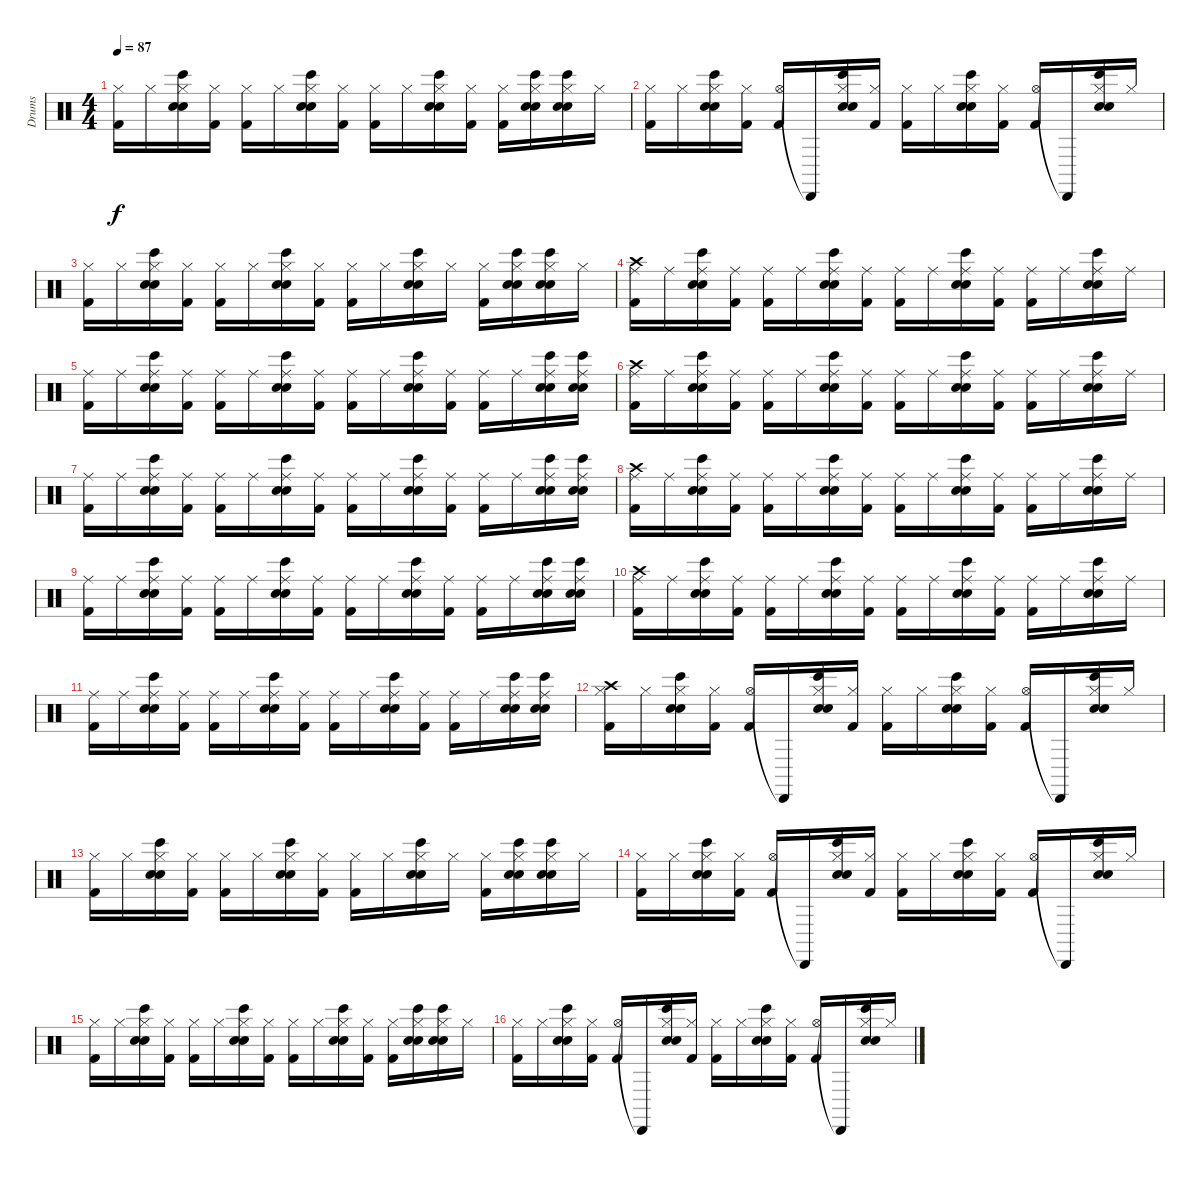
\track ("Drums" "Drums") {instrument percussion}
\staff {score}
\articulation defaults
\ts (4 4)
\tempo 87
\clef neutral
\ks c
("Hi-Hat (closed)" "Kick (hit) 2").16{dy f} "Hi-Hat (closed)".16 ("Hi-Hat (closed)" "Electric Snare (hit)" "Bongo High (hit)" "Snare (hit) 2").16 ("Hi-Hat (closed)" "Kick (hit) 2").16 ("Hi-Hat (closed)" "Kick (hit) 2").16 "Hi-Hat (closed)".16 ("Hi-Hat (closed)" "Electric Snare (hit)" "Bongo High (hit)" "Snare (hit) 2").16 ("Hi-Hat (closed)" "Kick (hit) 2").16 ("Hi-Hat (closed)" "Kick (hit) 2").16 "Hi-Hat (closed)".16 ("Hi-Hat (closed)" "Electric Snare (hit)" "Bongo High (hit)" "Snare (hit) 2").16 ("Hi-Hat (closed)" "Kick (hit) 2").16 ("Hi-Hat (closed)" "Kick (hit) 2").16 ("Hi-Hat (closed)" "Electric Snare (hit)" "Bongo High (hit)" "Snare (hit) 2").16 ("Hi-Hat (closed)" "Electric Snare (hit)" "Bongo High (hit)" "Snare (hit) 2").16 "Hi-Hat (closed)".16 |
("Hi-Hat (closed)" "Kick (hit) 2").16 "Hi-Hat (closed)".16 ("Hi-Hat (closed)" "Electric Snare (hit)" "Bongo High (hit)" "Snare (hit) 2").16 ("Hi-Hat (closed)" "Kick (hit) 2").16 ("Hi-Hat (open)" "Kick (hit) 2").16 "Cabasa (hit)"{t}.16 ("Hi-Hat (closed)" "Electric Snare (hit)" "Bongo High (hit)" "Snare (hit) 2").16 ("Hi-Hat (closed)" "Kick (hit) 2").16 ("Hi-Hat (closed)" "Kick (hit) 2").16 "Hi-Hat (closed)".16 ("Hi-Hat (closed)" "Electric Snare (hit)" "Bongo High (hit)" "Snare (hit) 2").16 ("Hi-Hat (closed)" "Kick (hit) 2").16 ("Hi-Hat (open)" "Kick (hit) 2").16 "Cabasa (hit)"{t}.16 ("Hi-Hat (closed)" "Electric Snare (hit)" "Bongo High (hit)" "Snare (hit) 2").16 "Hi-Hat (closed)".16 |
("Hi-Hat (closed)" "Kick (hit) 2").16 "Hi-Hat (closed)".16 ("Hi-Hat (closed)" "Electric Snare (hit)" "Bongo High (hit)" "Snare (hit) 2").16 ("Hi-Hat (closed)" "Kick (hit) 2").16 ("Hi-Hat (closed)" "Kick (hit) 2").16 "Hi-Hat (closed)".16 ("Hi-Hat (closed)" "Electric Snare (hit)" "Bongo High (hit)" "Snare (hit) 2").16 ("Hi-Hat (closed)" "Kick (hit) 2").16 ("Hi-Hat (closed)" "Kick (hit) 2").16 "Hi-Hat (closed)".16 ("Hi-Hat (closed)" "Electric Snare (hit)" "Bongo High (hit)" "Snare (hit) 2").16 "Hi-Hat (closed)".16 ("Hi-Hat (closed)" "Kick (hit) 2").16 ("Hi-Hat (closed)" "Electric Snare (hit)" "Bongo High (hit)" "Snare (hit) 2").16 ("Hi-Hat (closed)" "Electric Snare (hit)" "Bongo High (hit)" "Snare (hit) 2").16 "Hi-Hat (closed)".16 |
("Crash high (hit)" "Ride (middle)" "Kick (hit) 2").16 "Ride (middle)".16 ("Ride (middle)" "Electric Snare (hit)" "Bongo High (hit)" "Snare (hit) 2").16 ("Ride (middle)" "Kick (hit) 2").16 ("Ride (middle)" "Kick (hit) 2").16 "Ride (middle)".16 ("Ride (middle)" "Electric Snare (hit)" "Bongo High (hit)" "Snare (hit) 2").16 ("Ride (middle)" "Kick (hit) 2").16 ("Ride (middle)" "Kick (hit) 2").16 "Ride (middle)".16 ("Ride (middle)" "Electric Snare (hit)" "Bongo High (hit)" "Snare (hit) 2").16 ("Ride (middle)" "Kick (hit) 2").16 ("Ride (middle)" "Kick (hit) 2").16 "Ride (middle)".16 ("Ride (middle)" "Electric Snare (hit)" "Bongo High (hit)" "Snare (hit) 2").16 "Ride (middle)".16 |
("Ride (middle)" "Kick (hit) 2").16 "Ride (middle)".16 ("Ride (middle)" "Electric Snare (hit)" "Bongo High (hit)" "Snare (hit) 2").16 ("Ride (middle)" "Kick (hit) 2").16 ("Ride (middle)" "Kick (hit) 2").16 "Ride (middle)".16 ("Ride (middle)" "Electric Snare (hit)" "Bongo High (hit)" "Snare (hit) 2").16 ("Ride (middle)" "Kick (hit) 2").16 ("Ride (middle)" "Kick (hit) 2").16 "Ride (middle)".16 ("Ride (middle)" "Electric Snare (hit)" "Bongo High (hit)" "Snare (hit) 2").16 ("Ride (middle)" "Kick (hit) 2").16 ("Ride (middle)" "Kick (hit) 2").16 "Ride (middle)".16 ("Ride (middle)" "Electric Snare (hit)" "Bongo High (hit)" "Snare (hit) 2").16 ("Ride (middle)" "Electric Snare (hit)" "Bongo High (hit)" "Snare (hit) 2").16 |
("Crash high (hit)" "Ride (middle)" "Kick (hit) 2").16 "Ride (middle)".16 ("Ride (middle)" "Electric Snare (hit)" "Bongo High (hit)" "Snare (hit) 2").16 ("Ride (middle)" "Kick (hit) 2").16 ("Ride (middle)" "Kick (hit) 2").16 "Ride (middle)".16 ("Ride (middle)" "Electric Snare (hit)" "Bongo High (hit)" "Snare (hit) 2").16 ("Ride (middle)" "Kick (hit) 2").16 ("Ride (middle)" "Kick (hit) 2").16 "Ride (middle)".16 ("Ride (middle)" "Electric Snare (hit)" "Bongo High (hit)" "Snare (hit) 2").16 ("Ride (middle)" "Kick (hit) 2").16 ("Ride (middle)" "Kick (hit) 2").16 "Ride (middle)".16 ("Ride (middle)" "Electric Snare (hit)" "Bongo High (hit)" "Snare (hit) 2").16 "Ride (middle)".16 |
("Ride (middle)" "Kick (hit) 2").16 "Ride (middle)".16 ("Ride (middle)" "Electric Snare (hit)" "Bongo High (hit)" "Snare (hit) 2").16 ("Ride (middle)" "Kick (hit) 2").16 ("Ride (middle)" "Kick (hit) 2").16 "Ride (middle)".16 ("Ride (middle)" "Electric Snare (hit)" "Bongo High (hit)" "Snare (hit) 2").16 ("Ride (middle)" "Kick (hit) 2").16 ("Ride (middle)" "Kick (hit) 2").16 "Ride (middle)".16 ("Ride (middle)" "Electric Snare (hit)" "Bongo High (hit)" "Snare (hit) 2").16 ("Ride (middle)" "Kick (hit) 2").16 ("Ride (middle)" "Kick (hit) 2").16 "Ride (middle)".16 ("Ride (middle)" "Electric Snare (hit)" "Bongo High (hit)" "Snare (hit) 2").16 ("Ride (middle)" "Electric Snare (hit)" "Bongo High (hit)" "Snare (hit) 2").16 |
("Crash high (hit)" "Ride (middle)" "Kick (hit) 2").16 "Ride (middle)".16 ("Ride (middle)" "Electric Snare (hit)" "Bongo High (hit)" "Snare (hit) 2").16 ("Ride (middle)" "Kick (hit) 2").16 ("Ride (middle)" "Kick (hit) 2").16 "Ride (middle)".16 ("Ride (middle)" "Electric Snare (hit)" "Bongo High (hit)" "Snare (hit) 2").16 ("Ride (middle)" "Kick (hit) 2").16 ("Ride (middle)" "Kick (hit) 2").16 "Ride (middle)".16 ("Ride (middle)" "Electric Snare (hit)" "Bongo High (hit)" "Snare (hit) 2").16 ("Ride (middle)" "Kick (hit) 2").16 ("Ride (middle)" "Kick (hit) 2").16 "Ride (middle)".16 ("Ride (middle)" "Electric Snare (hit)" "Bongo High (hit)" "Snare (hit) 2").16 "Ride (middle)".16 |
("Ride (middle)" "Kick (hit) 2").16 "Ride (middle)".16 ("Ride (middle)" "Electric Snare (hit)" "Bongo High (hit)" "Snare (hit) 2").16 ("Ride (middle)" "Kick (hit) 2").16 ("Ride (middle)" "Kick (hit) 2").16 "Ride (middle)".16 ("Ride (middle)" "Electric Snare (hit)" "Bongo High (hit)" "Snare (hit) 2").16 ("Ride (middle)" "Kick (hit) 2").16 ("Ride (middle)" "Kick (hit) 2").16 "Ride (middle)".16 ("Ride (middle)" "Electric Snare (hit)" "Bongo High (hit)" "Snare (hit) 2").16 ("Ride (middle)" "Kick (hit) 2").16 ("Ride (middle)" "Kick (hit) 2").16 "Ride (middle)".16 ("Ride (middle)" "Electric Snare (hit)" "Bongo High (hit)" "Snare (hit) 2").16 ("Ride (middle)" "Electric Snare (hit)" "Bongo High (hit)" "Snare (hit) 2").16 |
("Crash high (hit)" "Ride (middle)" "Kick (hit) 2").16 "Ride (middle)".16 ("Ride (middle)" "Electric Snare (hit)" "Bongo High (hit)" "Snare (hit) 2").16 ("Ride (middle)" "Kick (hit) 2").16 ("Ride (middle)" "Kick (hit) 2").16 "Ride (middle)".16 ("Ride (middle)" "Electric Snare (hit)" "Bongo High (hit)" "Snare (hit) 2").16 ("Ride (middle)" "Kick (hit) 2").16 ("Ride (middle)" "Kick (hit) 2").16 "Ride (middle)".16 ("Ride (middle)" "Electric Snare (hit)" "Bongo High (hit)" "Snare (hit) 2").16 ("Ride (middle)" "Kick (hit) 2").16 ("Ride (middle)" "Kick (hit) 2").16 "Ride (middle)".16 ("Ride (middle)" "Electric Snare (hit)" "Bongo High (hit)" "Snare (hit) 2").16 "Ride (middle)".16 |
("Ride (middle)" "Kick (hit) 2").16 "Ride (middle)".16 ("Ride (middle)" "Electric Snare (hit)" "Bongo High (hit)" "Snare (hit) 2").16 ("Ride (middle)" "Kick (hit) 2").16 ("Ride (middle)" "Kick (hit) 2").16 "Ride (middle)".16 ("Ride (middle)" "Electric Snare (hit)" "Bongo High (hit)" "Snare (hit) 2").16 ("Ride (middle)" "Kick (hit) 2").16 ("Ride (middle)" "Kick (hit) 2").16 "Ride (middle)".16 ("Ride (middle)" "Electric Snare (hit)" "Bongo High (hit)" "Snare (hit) 2").16 ("Ride (middle)" "Kick (hit) 2").16 ("Ride (middle)" "Kick (hit) 2").16 "Ride (middle)".16 ("Ride (middle)" "Electric Snare (hit)" "Bongo High (hit)" "Snare (hit) 2").16 ("Ride (middle)" "Electric Snare (hit)" "Bongo High (hit)" "Snare (hit) 2").16 |
("Crash high (hit)" "Hi-Hat (closed)" "Kick (hit) 2").16 "Hi-Hat (closed)".16 ("Hi-Hat (closed)" "Electric Snare (hit)" "Bongo High (hit)" "Snare (hit) 2").16 ("Hi-Hat (closed)" "Kick (hit) 2").16 ("Hi-Hat (open)" "Kick (hit) 2").16 "Cabasa (hit)"{t}.16 ("Hi-Hat (closed)" "Electric Snare (hit)" "Bongo High (hit)" "Snare (hit) 2").16 ("Hi-Hat (closed)" "Kick (hit) 2").16 ("Hi-Hat (closed)" "Kick (hit) 2").16 "Hi-Hat (closed)".16 ("Hi-Hat (closed)" "Electric Snare (hit)" "Bongo High (hit)" "Snare (hit) 2").16 ("Hi-Hat (closed)" "Kick (hit) 2").16 ("Hi-Hat (open)" "Kick (hit) 2").16 "Cabasa (hit)"{t}.16 ("Hi-Hat (closed)" "Electric Snare (hit)" "Bongo High (hit)" "Snare (hit) 2").16 "Hi-Hat (closed)".16 |
("Hi-Hat (closed)" "Kick (hit) 2").16 "Hi-Hat (closed)".16 ("Hi-Hat (closed)" "Electric Snare (hit)" "Bongo High (hit)" "Snare (hit) 2").16 ("Hi-Hat (closed)" "Kick (hit) 2").16 ("Hi-Hat (closed)" "Kick (hit) 2").16 "Hi-Hat (closed)".16 ("Hi-Hat (closed)" "Electric Snare (hit)" "Bongo High (hit)" "Snare (hit) 2").16 ("Hi-Hat (closed)" "Kick (hit) 2").16 ("Hi-Hat (closed)" "Kick (hit) 2").16 "Hi-Hat (closed)".16 ("Hi-Hat (closed)" "Electric Snare (hit)" "Bongo High (hit)" "Snare (hit) 2").16 "Hi-Hat (closed)".16 ("Hi-Hat (closed)" "Kick (hit) 2").16 ("Hi-Hat (closed)" "Electric Snare (hit)" "Bongo High (hit)" "Snare (hit) 2").16 ("Hi-Hat (closed)" "Electric Snare (hit)" "Bongo High (hit)" "Snare (hit) 2").16 "Hi-Hat (closed)".16 |
("Hi-Hat (closed)" "Kick (hit) 2").16 "Hi-Hat (closed)".16 ("Hi-Hat (closed)" "Electric Snare (hit)" "Bongo High (hit)" "Snare (hit) 2").16 ("Hi-Hat (closed)" "Kick (hit) 2").16 ("Hi-Hat (open)" "Kick (hit) 2").16 "Cabasa (hit)"{t}.16 ("Hi-Hat (closed)" "Electric Snare (hit)" "Bongo High (hit)" "Snare (hit) 2").16 ("Hi-Hat (closed)" "Kick (hit) 2").16 ("Hi-Hat (closed)" "Kick (hit) 2").16 "Hi-Hat (closed)".16 ("Hi-Hat (closed)" "Electric Snare (hit)" "Bongo High (hit)" "Snare (hit) 2").16 ("Hi-Hat (closed)" "Kick (hit) 2").16 ("Hi-Hat (open)" "Kick (hit) 2").16 "Cabasa (hit)"{t}.16 ("Hi-Hat (closed)" "Electric Snare (hit)" "Bongo High (hit)" "Snare (hit) 2").16 "Hi-Hat (closed)".16 |
("Hi-Hat (closed)" "Kick (hit) 2").16 "Hi-Hat (closed)".16 ("Hi-Hat (closed)" "Electric Snare (hit)" "Bongo High (hit)" "Snare (hit) 2").16 ("Hi-Hat (closed)" "Kick (hit) 2").16 ("Hi-Hat (closed)" "Kick (hit) 2").16 "Hi-Hat (closed)".16 ("Hi-Hat (closed)" "Electric Snare (hit)" "Bongo High (hit)" "Snare (hit) 2").16 ("Hi-Hat (closed)" "Kick (hit) 2").16 ("Hi-Hat (closed)" "Kick (hit) 2").16 "Hi-Hat (closed)".16 ("Hi-Hat (closed)" "Electric Snare (hit)" "Bongo High (hit)" "Snare (hit) 2").16 ("Hi-Hat (closed)" "Kick (hit) 2").16 ("Hi-Hat (closed)" "Kick (hit) 2").16 ("Hi-Hat (closed)" "Electric Snare (hit)" "Bongo High (hit)" "Snare (hit) 2").16 ("Hi-Hat (closed)" "Electric Snare (hit)" "Bongo High (hit)" "Snare (hit) 2").16 "Hi-Hat (closed)".16 |
("Hi-Hat (closed)" "Kick (hit) 2").16 "Hi-Hat (closed)".16 ("Hi-Hat (closed)" "Electric Snare (hit)" "Bongo High (hit)" "Snare (hit) 2").16 ("Hi-Hat (closed)" "Kick (hit) 2").16 ("Hi-Hat (open)" "Kick (hit) 2").16 "Cabasa (hit)"{t}.16 ("Hi-Hat (closed)" "Electric Snare (hit)" "Bongo High (hit)" "Snare (hit) 2").16 ("Hi-Hat (closed)" "Kick (hit) 2").16 ("Hi-Hat (closed)" "Kick (hit) 2").16 "Hi-Hat (closed)".16 ("Hi-Hat (closed)" "Electric Snare (hit)" "Bongo High (hit)" "Snare (hit) 2").16 ("Hi-Hat (closed)" "Kick (hit) 2").16 ("Hi-Hat (open)" "Kick (hit) 2").16 "Cabasa (hit)"{t}.16 ("Hi-Hat (closed)" "Electric Snare (hit)" "Bongo High (hit)" "Snare (hit) 2").16 "Hi-Hat (closed)".16
